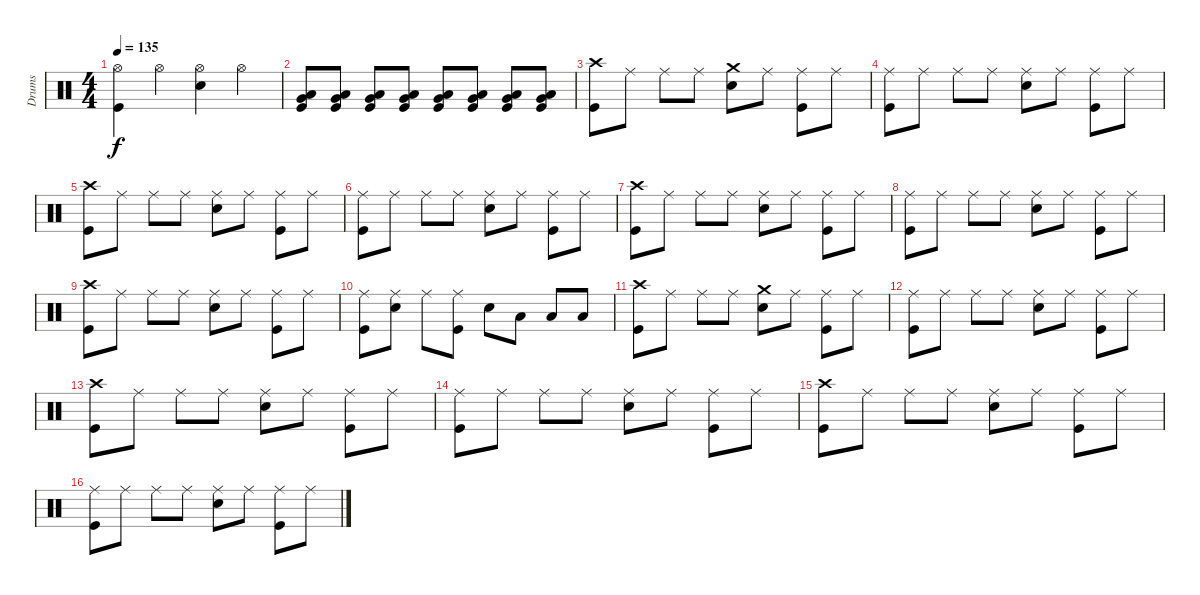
\track ("Drums" "Drums") {instrument percussion}
\staff {score}
\articulation defaults
\ts (4 4)
\tempo 135
\clef neutral
\ks c
("Kick (hit)" "Hi-Hat (open)").4{dy f} "Hi-Hat (open)".4 ("Hi-Hat (open)" "Snare (hit) 2").4 "Hi-Hat (open)".4 |
("Kick (hit)" "Low Floor Tom (hit)" "Very Low Tom (hit)").8 ("Kick (hit)" "Low Floor Tom (hit)" "Very Low Tom (hit)").8 ("Kick (hit)" "Low Floor Tom (hit)" "Very Low Tom (hit)").8 ("Kick (hit)" "Low Floor Tom (hit)" "Very Low Tom (hit)").8 ("Kick (hit)" "Low Floor Tom (hit)" "Very Low Tom (hit)").8 ("Kick (hit)" "Low Floor Tom (hit)" "Very Low Tom (hit)").8 ("Kick (hit)" "Low Floor Tom (hit)" "Very Low Tom (hit)").8 ("Kick (hit)" "Low Floor Tom (hit)" "Very Low Tom (hit)").8 |
("Kick (hit)" "Crash high (hit)").8 "Ride (middle)".8 "Ride (middle)".8 "Ride (middle)".8 ("Crash medium (hit)" "Snare (hit) 2").8 "Ride (middle)".8 ("Kick (hit)" "Ride (middle)").8 "Ride (middle)".8 |
("Kick (hit)" "Ride (middle)").8 "Ride (middle)".8 "Ride (middle)".8 "Ride (middle)".8 ("Ride (middle)" "Snare (hit) 2").8 "Ride (middle)".8 ("Kick (hit)" "Ride (middle)").8 "Ride (middle)".8 |
("Kick (hit)" "Crash high (hit)").8 "Ride (middle)".8 "Ride (middle)".8 "Ride (middle)".8 ("Ride (middle)" "Snare (hit) 2").8 "Ride (middle)".8 ("Kick (hit)" "Ride (middle)").8 "Ride (middle)".8 |
("Kick (hit)" "Ride (middle)").8 "Ride (middle)".8 "Ride (middle)".8 "Ride (middle)".8 ("Ride (middle)" "Snare (hit) 2").8 "Ride (middle)".8 ("Kick (hit)" "Ride (middle)").8 "Ride (middle)".8 |
("Kick (hit)" "Crash high (hit)").8 "Ride (middle)".8 "Ride (middle)".8 "Ride (middle)".8 ("Ride (middle)" "Snare (hit) 2").8 "Ride (middle)".8 ("Kick (hit)" "Ride (middle)").8 "Ride (middle)".8 |
("Kick (hit)" "Ride (middle)").8 "Ride (middle)".8 "Ride (middle)".8 "Ride (middle)".8 ("Ride (middle)" "Snare (hit) 2").8 "Ride (middle)".8 ("Kick (hit)" "Ride (middle)").8 "Ride (middle)".8 |
("Kick (hit)" "Crash high (hit)").8 "Ride (middle)".8 "Ride (middle)".8 "Ride (middle)".8 ("Ride (middle)" "Snare (hit) 2").8 "Ride (middle)".8 ("Kick (hit)" "Ride (middle)").8 "Ride (middle)".8 |
("Kick (hit)" "Ride (middle)").8 ("Ride (middle)" "Snare (hit) 2").8 "Ride (middle)".8 ("Kick (hit)" "Ride (middle)").8 "Snare (hit) 2".8 "Low Floor Tom (hit)".8 "Low Floor Tom (hit)".8 "Low Floor Tom (hit)".8 |
("Kick (hit)" "Crash high (hit)").8 "Ride (middle)".8 "Ride (middle)".8 "Ride (middle)".8 ("Crash medium (hit)" "Snare (hit) 2").8 "Ride (middle)".8 ("Kick (hit)" "Ride (middle)").8 "Ride (middle)".8 |
("Kick (hit)" "Ride (middle)").8 "Ride (middle)".8 "Ride (middle)".8 "Ride (middle)".8 ("Ride (middle)" "Snare (hit) 2").8 "Ride (middle)".8 ("Kick (hit)" "Ride (middle)").8 "Ride (middle)".8 |
("Kick (hit)" "Crash high (hit)").8 "Ride (middle)".8 "Ride (middle)".8 "Ride (middle)".8 ("Ride (middle)" "Snare (hit) 2").8 "Ride (middle)".8 ("Kick (hit)" "Ride (middle)").8 "Ride (middle)".8 |
("Kick (hit)" "Ride (middle)").8 "Ride (middle)".8 "Ride (middle)".8 "Ride (middle)".8 ("Ride (middle)" "Snare (hit) 2").8 "Ride (middle)".8 ("Kick (hit)" "Ride (middle)").8 "Ride (middle)".8 |
("Kick (hit)" "Crash high (hit)").8 "Ride (middle)".8 "Ride (middle)".8 "Ride (middle)".8 ("Ride (middle)" "Snare (hit) 2").8 "Ride (middle)".8 ("Kick (hit)" "Ride (middle)").8 "Ride (middle)".8 |
("Kick (hit)" "Ride (middle)").8 "Ride (middle)".8 "Ride (middle)".8 "Ride (middle)".8 ("Ride (middle)" "Snare (hit) 2").8 "Ride (middle)".8 ("Kick (hit)" "Ride (middle)").8 "Ride (middle)".8
